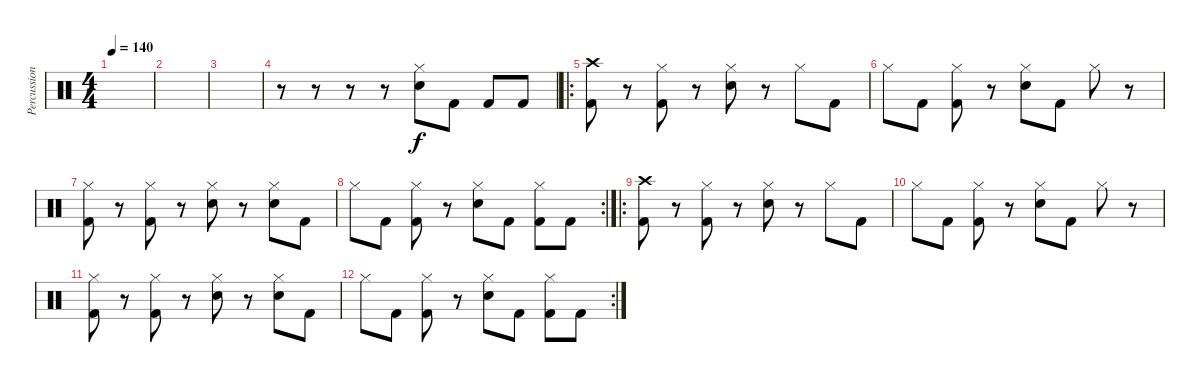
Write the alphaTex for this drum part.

\track ("Percussions" "Percussion") {instrument percussion}
\staff {score}
\articulation defaults
\ts (4 4)
\tempo 140
\clef neutral
\ks c
|
|
|
r.8 r.8 r.8 r.8 ("Hi-Hat (closed)" "Snare (hit) 2").8 "Kick (hit) 2".8 "Kick (hit) 2".8 "Kick (hit) 2".8 |
\ro
("Crash high (hit)" "Kick (hit) 2").8 r.8 ("Hi-Hat (closed)" "Kick (hit) 2").8 r.8 ("Hi-Hat (closed)" "Snare (hit) 2").8 r.8 "Hi-Hat (closed)".8 "Kick (hit) 2".8 |
"Hi-Hat (closed)".8 "Kick (hit) 2".8 ("Hi-Hat (closed)" "Kick (hit) 2").8 r.8 ("Hi-Hat (closed)" "Snare (hit) 2").8 "Kick (hit) 2".8 "Hi-Hat (closed)".8 r.8 |
("Hi-Hat (closed)" "Kick (hit) 2").8 r.8 ("Hi-Hat (closed)" "Kick (hit) 2").8 r.8 ("Hi-Hat (closed)" "Snare (hit) 2").8 r.8 ("Hi-Hat (closed)" "Snare (hit) 2").8 "Kick (hit) 2".8 |
\rc 2 "Hi-Hat (closed)".8 "Kick (hit) 2".8
("Hi-Hat (closed)" "Kick (hit) 2").8 r.8 ("Hi-Hat (closed)" "Snare (hit) 2").8 "Kick (hit) 2".8 ("Hi-Hat (closed)" "Kick (hit) 2").8 "Kick (hit) 2".8 |
\ro
("Crash high (hit)" "Kick (hit) 2").8 r.8 ("Hi-Hat (closed)" "Kick (hit) 2").8 r.8 ("Hi-Hat (closed)" "Snare (hit) 2").8 r.8 "Hi-Hat (closed)".8 "Kick (hit) 2".8 |
"Hi-Hat (closed)".8 "Kick (hit) 2".8 ("Hi-Hat (closed)" "Kick (hit) 2").8 r.8 ("Hi-Hat (closed)" "Snare (hit) 2").8 "Kick (hit) 2".8 "Hi-Hat (closed)".8 r.8 |
("Hi-Hat (closed)" "Kick (hit) 2").8 r.8 ("Hi-Hat (closed)" "Kick (hit) 2").8 r.8 ("Hi-Hat (closed)" "Snare (hit) 2").8 r.8 ("Hi-Hat (closed)" "Snare (hit) 2").8 "Kick (hit) 2".8 |
\rc 2 "Hi-Hat (closed)".8 "Kick (hit) 2".8
("Hi-Hat (closed)" "Kick (hit) 2").8 r.8 ("Hi-Hat (closed)" "Snare (hit) 2").8 "Kick (hit) 2".8 ("Hi-Hat (closed)" "Kick (hit) 2").8 "Kick (hit) 2".8
